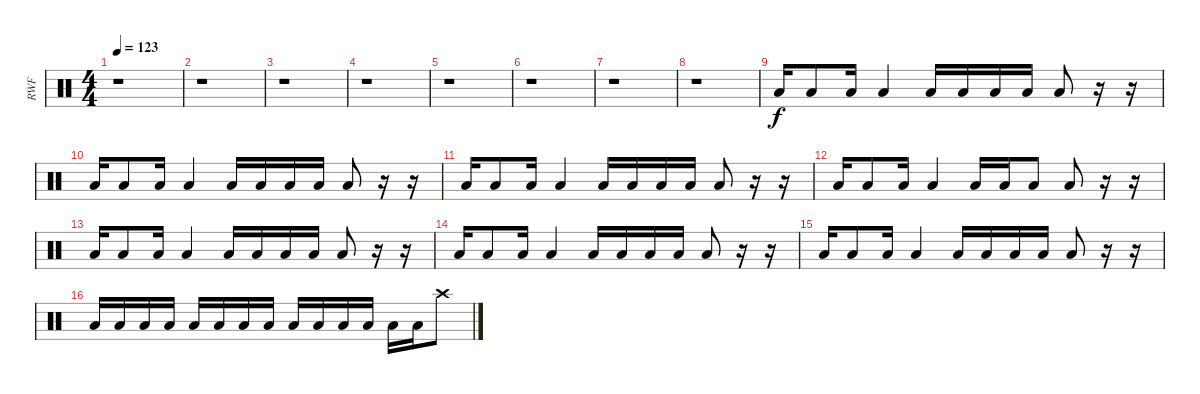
\track ("RWF" "RWF") {instrument percussion}
\staff {score}
\articulation defaults
\ts (4 4)
\tempo 123
\clef neutral
\ks c
r.1{dy f} |
r.1 |
r.1 |
r.1 |
r.1 |
r.1 |
r.1 |
r.1 |
"Low Tom (hit)".16 "Low Tom (hit)".8 "Low Tom (hit)".16 "Low Tom (hit)".4 "Low Tom (hit)".16 "Low Tom (hit)".16 "Low Tom (hit)".16 "Low Tom (hit)".16 "Low Tom (hit)".8 r.16 r.16 |
"Low Tom (hit)".16 "Low Tom (hit)".8 "Low Tom (hit)".16 "Low Tom (hit)".4 "Low Tom (hit)".16 "Low Tom (hit)".16 "Low Tom (hit)".16 "Low Tom (hit)".16 "Low Tom (hit)".8 r.16 r.16 |
"Low Tom (hit)".16 "Low Tom (hit)".8 "Low Tom (hit)".16 "Low Tom (hit)".4 "Low Tom (hit)".16 "Low Tom (hit)".16 "Low Tom (hit)".16 "Low Tom (hit)".16 "Low Tom (hit)".8 r.16 r.16 |
"Low Tom (hit)".16 "Low Tom (hit)".8 "Low Tom (hit)".16 "Low Tom (hit)".4 "Low Tom (hit)".16 "Low Tom (hit)".16 "Low Tom (hit)".8 "Low Tom (hit)".8 r.16 r.16 |
"Low Tom (hit)".16 "Low Tom (hit)".8 "Low Tom (hit)".16 "Low Tom (hit)".4 "Low Tom (hit)".16 "Low Tom (hit)".16 "Low Tom (hit)".16 "Low Tom (hit)".16 "Low Tom (hit)".8 r.16 r.16 |
"Low Tom (hit)".16 "Low Tom (hit)".8 "Low Tom (hit)".16 "Low Tom (hit)".4 "Low Tom (hit)".16 "Low Tom (hit)".16 "Low Tom (hit)".16 "Low Tom (hit)".16 "Low Tom (hit)".8 r.16 r.16 |
"Low Tom (hit)".16 "Low Tom (hit)".8 "Low Tom (hit)".16 "Low Tom (hit)".4 "Low Tom (hit)".16 "Low Tom (hit)".16 "Low Tom (hit)".16 "Low Tom (hit)".16 "Low Tom (hit)".8 r.16 r.16 |
"Low Tom (hit)".16 "Low Tom (hit)".16 "Low Tom (hit)".16 "Low Tom (hit)".16 "Low Tom (hit)".16 "Low Tom (hit)".16 "Low Tom (hit)".16 "Low Tom (hit)".16 "Low Tom (hit)".16 "Low Tom (hit)".16 "Low Tom (hit)".16 "Low Tom (hit)".16 "Low Tom (hit)".16 "Low Tom (hit)".16 "Crash high (hit)".8
